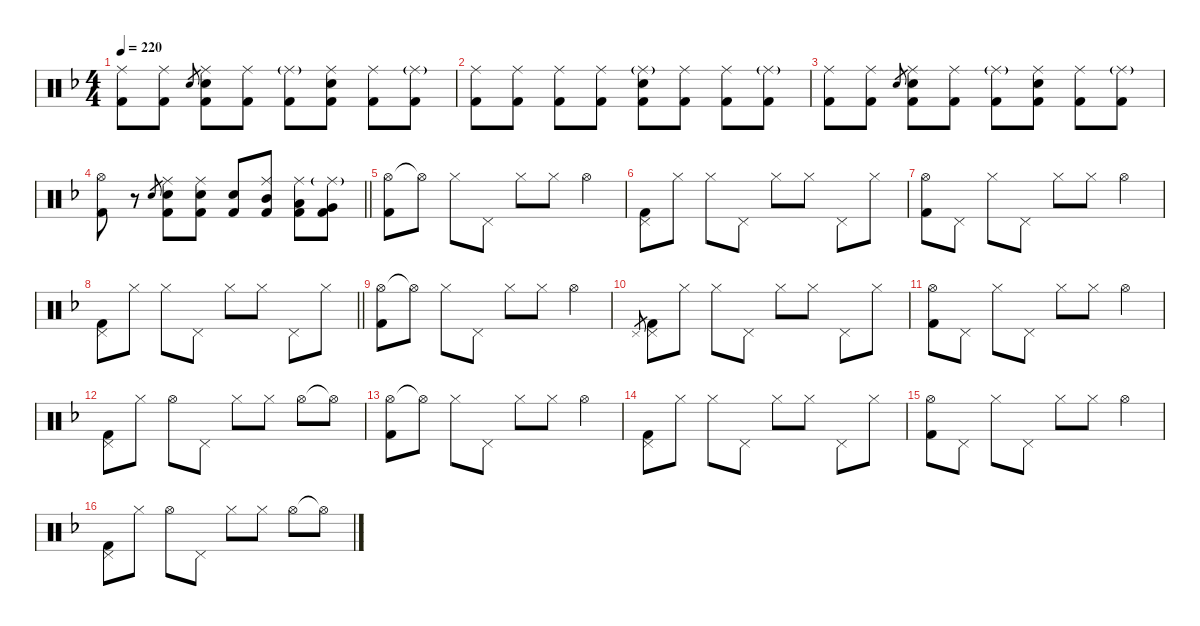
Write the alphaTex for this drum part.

\hideDynamics
\bracketExtendMode nobrackets
\singleTrackTrackNamePolicy hidden
\multiTrackTrackNamePolicy hidden
\firstSystemTrackNameMode fullname
\firstSystemTrackNameOrientation horizontal
\otherSystemsTrackNameOrientation horizontal
\track ("Drumkit" "Drums") {instrument percussion}
\staff {score}
\articulation defaults
\ts (4 4)
\tempo 220
\clef neutral
\ks dminor
("Ride (middle)"{acc forcenatural} "Kick (hit) 2"{acc forcenatural}).8{dy mf beam Down} ("Ride (middle)"{acc forcenatural} "Kick (hit) 2"{acc forcenatural}).8{beam Down} "Snare (hit) 2"{acc forcenatural}.8{gr dy mp beam Up} ("Ride (middle)"{acc forcenatural} "Snare (hit) 2"{acc forcenatural} "Kick (hit) 2"{acc forcenatural}).8{dy mf beam Down} ("Ride (middle)"{acc forcenatural} "Kick (hit) 2"{acc forcenatural}).8{beam Down} ("Ride (middle)"{g acc forcenatural} "Kick (hit) 2"{acc forcenatural}).8{dy f beam Down} ("Ride (middle)"{acc forcenatural} "Snare (hit) 2"{acc forcenatural} "Kick (hit) 2"{acc forcenatural}).8{dy mf beam Down} ("Ride (middle)"{acc forcenatural} "Kick (hit) 2"{acc forcenatural}).8{beam Down} ("Ride (middle)"{g acc forcenatural} "Kick (hit) 2"{acc forcenatural}).8{dy f beam Down} |
("Ride (middle)"{acc forcenatural} "Kick (hit) 2"{acc forcenatural}).8{dy mf beam Down} ("Ride (middle)"{acc forcenatural} "Kick (hit) 2"{acc forcenatural}).8{beam Down} ("Ride (middle)"{acc forcenatural} "Kick (hit) 2"{acc forcenatural}).8{beam Down} ("Ride (middle)"{acc forcenatural} "Kick (hit) 2"{acc forcenatural}).8{beam Down} ("Ride (middle)"{g acc forcenatural} "Snare (hit) 2"{acc forcenatural} "Kick (hit) 2"{acc forcenatural}).8{dy f beam Down} ("Ride (middle)"{acc forcenatural} "Kick (hit) 2"{acc forcenatural}).8{dy mf beam Down} ("Ride (middle)"{acc forcenatural} "Kick (hit) 2"{acc forcenatural}).8{beam Down} ("Ride (middle)"{g acc forcenatural} "Kick (hit) 2"{acc forcenatural}).8{dy f beam Down} |
("Ride (middle)"{acc forcenatural} "Kick (hit) 2"{acc forcenatural}).8{dy mf beam Down} ("Ride (middle)"{acc forcenatural} "Kick (hit) 2"{acc forcenatural}).8{beam Down} "Snare (hit) 2"{acc forcenatural}.8{gr dy mp beam Up} ("Ride (middle)"{acc forcenatural} "Snare (hit) 2"{acc forcenatural} "Kick (hit) 2"{acc forcenatural}).8{dy mf beam Down} ("Ride (middle)"{acc forcenatural} "Kick (hit) 2"{acc forcenatural}).8{beam Down} ("Ride (middle)"{g acc forcenatural} "Kick (hit) 2"{acc forcenatural}).8{dy f beam Down} ("Ride (middle)"{acc forcenatural} "Snare (hit) 2"{acc forcenatural} "Kick (hit) 2"{acc forcenatural}).8{dy mf beam Down} ("Ride (middle)"{acc forcenatural} "Kick (hit) 2"{acc forcenatural}).8{beam Down} ("Ride (middle)"{g acc forcenatural} "Kick (hit) 2"{acc forcenatural}).8{dy f beam Down} |
\barLineRight lightlight
("Hi-Hat (open)"{acc forcenatural} "Kick (hit) 2"{acc forcenatural}).8{dy mf beam Down} r.8{beam Down} "Snare (hit) 2"{acc forcenatural}.8{gr dy mp beam Up} ("Ride (middle)"{acc forcenatural} "Snare (hit) 2"{acc forcenatural} "Kick (hit) 2"{acc forcenatural}).8{dy mf beam Down} ("Ride (middle)"{acc forcenatural} "Snare (hit) 2"{acc forcenatural} "Kick (hit) 2"{acc forcenatural}).8{beam Down} ("Snare (hit) 2"{acc forcenatural} "Kick (hit) 2"{acc forcenatural}).8{dy f beam Up} ("Ride (middle)"{acc forcenatural} "Mid Tom (hit)"{acc forcenatural} "Kick (hit) 2"{acc forcenatural}).8{dy mf beam Up} ("Ride (middle)"{acc forcenatural} "Low Tom (hit)"{acc forcenatural} "Kick (hit) 2"{acc forcenatural}).8{beam Down} ("Ride (middle)"{g acc forcenatural} "Very Low Tom (hit)"{acc forcenatural} "Kick (hit) 2"{acc forcenatural}).8{dy f beam Down} |
("Hi-Hat (open)"{acc forcenatural} "Kick (hit) 2"{acc forcenatural}).8{dy mf beam Down} "Hi-Hat (open)"{t acc forcenatural}.8{dy f beam Down} "Hi-Hat (closed)"{acc forcenatural}.8{dy mp beam Down} "Pedal Hi-Hat (hit)"{acc forcenatural}.8{beam Down} "Hi-Hat (closed)"{acc forcenatural}.8{beam Down} "Hi-Hat (closed)"{acc forcenatural}.8{beam Down} "Hi-Hat (open)"{acc forcenatural}.4{dy mf beam Down} |
("Pedal Hi-Hat (hit)"{acc forcenatural} "Kick (hit) 2"{acc forcenatural}).8{beam Down} "Hi-Hat (closed)"{acc forcenatural}.8{dy mp beam Down} "Hi-Hat (closed)"{acc forcenatural}.8{beam Down} "Pedal Hi-Hat (hit)"{acc forcenatural}.8{dy mf beam Down} "Hi-Hat (closed)"{acc forcenatural}.8{dy mp beam Down} "Hi-Hat (closed)"{acc forcenatural}.8{beam Down} "Pedal Hi-Hat (hit)"{acc forcenatural}.8{dy mf beam Down} "Hi-Hat (closed)"{acc forcenatural}.8{dy mp beam Down} |
("Hi-Hat (open)"{acc forcenatural} "Kick (hit) 2"{acc forcenatural}).8{dy mf beam Down} "Pedal Hi-Hat (hit)"{acc forcenatural}.8{beam Down} "Hi-Hat (closed)"{acc forcenatural}.8{dy mp beam Down} "Pedal Hi-Hat (hit)"{acc forcenatural}.8{beam Down} "Hi-Hat (closed)"{acc forcenatural}.8{beam Down} "Hi-Hat (closed)"{acc forcenatural}.8{beam Down} "Hi-Hat (open)"{acc forcenatural}.4{dy mf beam Down} |
\barLineRight lightlight
("Pedal Hi-Hat (hit)"{acc forcenatural} "Kick (hit) 2"{acc forcenatural}).8{beam Down} "Hi-Hat (closed)"{acc forcenatural}.8{dy mp beam Down} "Hi-Hat (closed)"{acc forcenatural}.8{beam Down} "Pedal Hi-Hat (hit)"{acc forcenatural}.8{dy mf beam Down} "Hi-Hat (closed)"{acc forcenatural}.8{dy mp beam Down} "Hi-Hat (closed)"{acc forcenatural}.8{beam Down} "Pedal Hi-Hat (hit)"{acc forcenatural}.8{dy mf beam Down} "Hi-Hat (closed)"{acc forcenatural}.8{dy mp beam Down} |
("Hi-Hat (open)"{acc forcenatural} "Kick (hit) 2"{acc forcenatural}).8{dy mf beam Down} "Hi-Hat (open)"{t acc forcenatural}.8{dy f beam Down} "Hi-Hat (closed)"{acc forcenatural}.8{dy mp beam Down} "Pedal Hi-Hat (hit)"{acc forcenatural}.8{beam Down} "Hi-Hat (closed)"{acc forcenatural}.8{beam Down} "Hi-Hat (closed)"{acc forcenatural}.8{beam Down} "Hi-Hat (open)"{acc forcenatural}.4{dy mf beam Down} |
"Pedal Hi-Hat (hit)"{acc forcenatural}.8{gr dy p beam Up} ("Pedal Hi-Hat (hit)"{acc forcenatural} "Kick (hit) 2"{acc forcenatural}).8{dy mf beam Down} "Hi-Hat (closed)"{acc forcenatural}.8{dy mp beam Down} "Hi-Hat (closed)"{acc forcenatural}.8{beam Down} "Pedal Hi-Hat (hit)"{acc forcenatural}.8{dy mf beam Down} "Hi-Hat (closed)"{acc forcenatural}.8{dy mp beam Down} "Hi-Hat (closed)"{acc forcenatural}.8{beam Down} "Pedal Hi-Hat (hit)"{acc forcenatural}.8{dy mf beam Down} "Hi-Hat (closed)"{acc forcenatural}.8{dy mp beam Down} |
("Hi-Hat (open)"{acc forcenatural} "Kick (hit) 2"{acc forcenatural}).8{dy mf beam Down} "Pedal Hi-Hat (hit)"{acc forcenatural}.8{beam Down} "Hi-Hat (closed)"{acc forcenatural}.8{dy mp beam Down} "Pedal Hi-Hat (hit)"{acc forcenatural}.8{beam Down} "Hi-Hat (closed)"{acc forcenatural}.8{beam Down} "Hi-Hat (closed)"{acc forcenatural}.8{beam Down} "Hi-Hat (open)"{acc forcenatural}.4{dy mf beam Down} |
("Pedal Hi-Hat (hit)"{acc forcenatural} "Kick (hit) 2"{acc forcenatural}).8{beam Down} "Hi-Hat (closed)"{acc forcenatural}.8{dy mp beam Down} "Hi-Hat (open)"{acc forcenatural}.8{dy mf beam Down} "Pedal Hi-Hat (hit)"{acc forcenatural}.8{dy f beam Down} "Hi-Hat (closed)"{acc forcenatural}.8{dy mp beam Down} "Hi-Hat (closed)"{acc forcenatural}.8{beam Down} "Hi-Hat (open)"{acc forcenatural}.8{dy mf beam Down} "Hi-Hat (open)"{t acc forcenatural}.8{dy f beam Down} |
("Hi-Hat (open)"{acc forcenatural} "Kick (hit) 2"{acc forcenatural}).8{dy mf beam Down} "Hi-Hat (open)"{t acc forcenatural}.8{dy f beam Down} "Hi-Hat (closed)"{acc forcenatural}.8{dy mp beam Down} "Pedal Hi-Hat (hit)"{acc forcenatural}.8{beam Down} "Hi-Hat (closed)"{acc forcenatural}.8{beam Down} "Hi-Hat (closed)"{acc forcenatural}.8{beam Down} "Hi-Hat (open)"{acc forcenatural}.4{dy mf beam Down} |
("Pedal Hi-Hat (hit)"{acc forcenatural} "Kick (hit) 2"{acc forcenatural}).8{beam Down} "Hi-Hat (closed)"{acc forcenatural}.8{dy mp beam Down} "Hi-Hat (closed)"{acc forcenatural}.8{beam Down} "Pedal Hi-Hat (hit)"{acc forcenatural}.8{dy mf beam Down} "Hi-Hat (closed)"{acc forcenatural}.8{dy mp beam Down} "Hi-Hat (closed)"{acc forcenatural}.8{beam Down} "Pedal Hi-Hat (hit)"{acc forcenatural}.8{dy mf beam Down} "Hi-Hat (closed)"{acc forcenatural}.8{dy mp beam Down} |
("Hi-Hat (open)"{acc forcenatural} "Kick (hit) 2"{acc forcenatural}).8{dy mf beam Down} "Pedal Hi-Hat (hit)"{acc forcenatural}.8{beam Down} "Hi-Hat (closed)"{acc forcenatural}.8{dy mp beam Down} "Pedal Hi-Hat (hit)"{acc forcenatural}.8{beam Down} "Hi-Hat (closed)"{acc forcenatural}.8{beam Down} "Hi-Hat (closed)"{acc forcenatural}.8{beam Down} "Hi-Hat (open)"{acc forcenatural}.4{dy mf beam Down} |
("Pedal Hi-Hat (hit)"{acc forcenatural} "Kick (hit) 2"{acc forcenatural}).8{beam Down} "Hi-Hat (closed)"{acc forcenatural}.8{dy mp beam Down} "Hi-Hat (open)"{acc forcenatural}.8{dy mf beam Down} "Pedal Hi-Hat (hit)"{acc forcenatural}.8{dy f beam Down} "Hi-Hat (closed)"{acc forcenatural}.8{dy mp beam Down} "Hi-Hat (closed)"{acc forcenatural}.8{beam Down} "Hi-Hat (open)"{acc forcenatural}.8{dy mf beam Down} "Hi-Hat (open)"{t acc forcenatural}.8{dy f beam Down}
